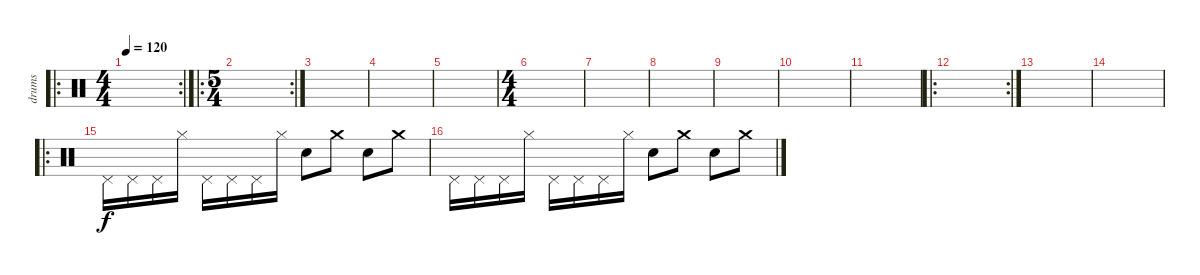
\track ("drums" "drums") {instrument percussion}
\staff {score}
\articulation defaults
\ro
\rc 2
\ts (4 4)
\tempo 120
\clef neutral
\ks c
|
\ro
\rc 2
\ts (5 4)
|
|
|
|
\ts (4 4)
|
|
|
|
|
|
\ro
\rc 2
|
|
|
\ro "Pedal Hi-Hat (hit)".16 "Pedal Hi-Hat (hit)".16 "Pedal Hi-Hat (hit)".16 "Hi-Hat (closed)".16 "Pedal Hi-Hat (hit)".16 "Pedal Hi-Hat (hit)".16 "Pedal Hi-Hat (hit)".16 "Hi-Hat (closed)".16 "Snare (hit) 2".8 "Crash medium (hit)".8 "Electric Snare (hit)".8 "Crash medium (hit)".8
|
"Pedal Hi-Hat (hit)".16 "Pedal Hi-Hat (hit)".16 "Pedal Hi-Hat (hit)".16 "Hi-Hat (closed)".16 "Pedal Hi-Hat (hit)".16 "Pedal Hi-Hat (hit)".16 "Pedal Hi-Hat (hit)".16 "Hi-Hat (closed)".16 "Snare (hit) 2".8 "Crash medium (hit)".8 "Electric Snare (hit)".8 "Crash medium (hit)".8
